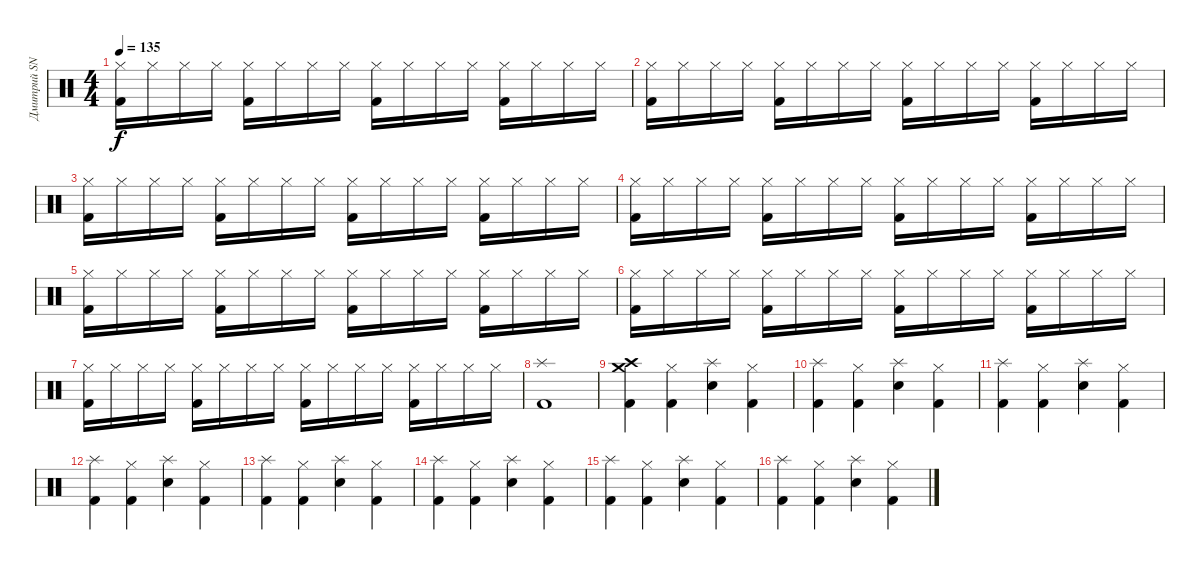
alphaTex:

\track ("Дмитрий SNAKE Хакимов" "Дмитрий SN") {instrument percussion}
\staff {score}
\articulation defaults
\ts (4 4)
\tempo 135
\clef neutral
\ks c
("Hi-Hat (closed)" "Kick (hit) 2").16{dy f} "Hi-Hat (closed)".16 "Hi-Hat (closed)".16 "Hi-Hat (closed)".16 ("Hi-Hat (closed)" "Kick (hit) 2").16 "Hi-Hat (closed)".16 "Hi-Hat (closed)".16 "Hi-Hat (closed)".16 ("Hi-Hat (closed)" "Kick (hit) 2").16 "Hi-Hat (closed)".16 "Hi-Hat (closed)".16 "Hi-Hat (closed)".16 ("Hi-Hat (closed)" "Kick (hit) 2").16 "Hi-Hat (closed)".16 "Hi-Hat (closed)".16 "Hi-Hat (closed)".16 |
("Hi-Hat (closed)" "Kick (hit) 2").16 "Hi-Hat (closed)".16 "Hi-Hat (closed)".16 "Hi-Hat (closed)".16 ("Hi-Hat (closed)" "Kick (hit) 2").16 "Hi-Hat (closed)".16 "Hi-Hat (closed)".16 "Hi-Hat (closed)".16 ("Hi-Hat (closed)" "Kick (hit) 2").16 "Hi-Hat (closed)".16 "Hi-Hat (closed)".16 "Hi-Hat (closed)".16 ("Hi-Hat (closed)" "Kick (hit) 2").16 "Hi-Hat (closed)".16 "Hi-Hat (closed)".16 "Hi-Hat (closed)".16 |
("Hi-Hat (closed)" "Kick (hit) 2").16 "Hi-Hat (closed)".16 "Hi-Hat (closed)".16 "Hi-Hat (closed)".16 ("Hi-Hat (closed)" "Kick (hit) 2").16 "Hi-Hat (closed)".16 "Hi-Hat (closed)".16 "Hi-Hat (closed)".16 ("Hi-Hat (closed)" "Kick (hit) 2").16 "Hi-Hat (closed)".16 "Hi-Hat (closed)".16 "Hi-Hat (closed)".16 ("Hi-Hat (closed)" "Kick (hit) 2").16 "Hi-Hat (closed)".16 "Hi-Hat (closed)".16 "Hi-Hat (closed)".16 |
("Hi-Hat (closed)" "Kick (hit) 2").16 "Hi-Hat (closed)".16 "Hi-Hat (closed)".16 "Hi-Hat (closed)".16 ("Hi-Hat (closed)" "Kick (hit) 2").16 "Hi-Hat (closed)".16 "Hi-Hat (closed)".16 "Hi-Hat (closed)".16 ("Hi-Hat (closed)" "Kick (hit) 2").16 "Hi-Hat (closed)".16 "Hi-Hat (closed)".16 "Hi-Hat (closed)".16 ("Hi-Hat (closed)" "Kick (hit) 2").16 "Hi-Hat (closed)".16 "Hi-Hat (closed)".16 "Hi-Hat (closed)".16 |
("Hi-Hat (closed)" "Kick (hit) 2").16 "Hi-Hat (closed)".16 "Hi-Hat (closed)".16 "Hi-Hat (closed)".16 ("Hi-Hat (closed)" "Kick (hit) 2").16 "Hi-Hat (closed)".16 "Hi-Hat (closed)".16 "Hi-Hat (closed)".16 ("Hi-Hat (closed)" "Kick (hit) 2").16 "Hi-Hat (closed)".16 "Hi-Hat (closed)".16 "Hi-Hat (closed)".16 ("Hi-Hat (closed)" "Kick (hit) 2").16 "Hi-Hat (closed)".16 "Hi-Hat (closed)".16 "Hi-Hat (closed)".16 |
("Hi-Hat (closed)" "Kick (hit) 2").16 "Hi-Hat (closed)".16 "Hi-Hat (closed)".16 "Hi-Hat (closed)".16 ("Hi-Hat (closed)" "Kick (hit) 2").16 "Hi-Hat (closed)".16 "Hi-Hat (closed)".16 "Hi-Hat (closed)".16 ("Hi-Hat (closed)" "Kick (hit) 2").16 "Hi-Hat (closed)".16 "Hi-Hat (closed)".16 "Hi-Hat (closed)".16 ("Hi-Hat (closed)" "Kick (hit) 2").16 "Hi-Hat (closed)".16 "Hi-Hat (closed)".16 "Hi-Hat (closed)".16 |
("Hi-Hat (closed)" "Kick (hit) 2").16 "Hi-Hat (closed)".16 "Hi-Hat (closed)".16 "Hi-Hat (closed)".16 ("Hi-Hat (closed)" "Kick (hit) 2").16 "Hi-Hat (closed)".16 "Hi-Hat (closed)".16 "Hi-Hat (closed)".16 ("Hi-Hat (closed)" "Kick (hit) 2").16 "Hi-Hat (closed)".16 "Hi-Hat (closed)".16 "Hi-Hat (closed)".16 ("Hi-Hat (closed)" "Kick (hit) 2").16 "Hi-Hat (closed)".16 "Hi-Hat (closed)".16 "Hi-Hat (closed)".16 |
("Splash (hit)" "Kick (hit) 2").1 |
("Crash high (hit)" "Crash medium (hit)" "Kick (hit) 2").4 ("Hi-Hat (closed)" "Kick (hit) 2").4 ("Splash (hit)" "Snare (hit) 2").4 ("Hi-Hat (closed)" "Kick (hit) 2").4 |
("Splash (hit)" "Kick (hit) 2").4 ("Hi-Hat (closed)" "Kick (hit) 2").4 ("Splash (hit)" "Snare (hit) 2").4 ("Hi-Hat (closed)" "Kick (hit) 2").4 |
("Splash (hit)" "Kick (hit) 2").4 ("Hi-Hat (closed)" "Kick (hit) 2").4 ("Splash (hit)" "Snare (hit) 2").4 ("Hi-Hat (closed)" "Kick (hit) 2").4 |
("Splash (hit)" "Kick (hit) 2").4 ("Hi-Hat (closed)" "Kick (hit) 2").4 ("Splash (hit)" "Snare (hit) 2").4 ("Hi-Hat (closed)" "Kick (hit) 2").4 |
("Splash (hit)" "Kick (hit) 2").4 ("Hi-Hat (closed)" "Kick (hit) 2").4 ("Splash (hit)" "Snare (hit) 2").4 ("Hi-Hat (closed)" "Kick (hit) 2").4 |
("Splash (hit)" "Kick (hit) 2").4 ("Hi-Hat (closed)" "Kick (hit) 2").4 ("Splash (hit)" "Snare (hit) 2").4 ("Hi-Hat (closed)" "Kick (hit) 2").4 |
("Splash (hit)" "Kick (hit) 2").4 ("Hi-Hat (closed)" "Kick (hit) 2").4 ("Splash (hit)" "Snare (hit) 2").4 ("Hi-Hat (closed)" "Kick (hit) 2").4 |
("Splash (hit)" "Kick (hit) 2").4 ("Hi-Hat (closed)" "Kick (hit) 2").4 ("Splash (hit)" "Snare (hit) 2").4 ("Hi-Hat (closed)" "Kick (hit) 2").4
